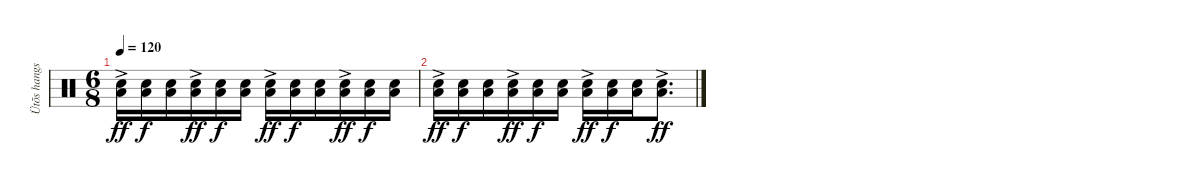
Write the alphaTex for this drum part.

\track ("Ütõs hangszer" "Ütõs hangs") {instrument percussion}
\staff {score}
\articulation defaults
\ts (6 8)
\tempo 120
\clef neutral
\ks c
("Low Floor Tom (hit)"{ac} "Snare (hit) 2"{ac}).16{dy ff} ("Low Floor Tom (hit)" "Snare (hit) 2").16{dy f} ("Low Floor Tom (hit)" "Snare (hit) 2").16 ("Low Floor Tom (hit)"{ac} "Snare (hit) 2"{ac}).16{dy ff} ("Low Floor Tom (hit)" "Snare (hit) 2").16{dy f} ("Low Floor Tom (hit)" "Snare (hit) 2").16 ("Low Floor Tom (hit)"{ac} "Snare (hit) 2"{ac}).16{dy ff} ("Low Floor Tom (hit)" "Snare (hit) 2").16{dy f} ("Low Floor Tom (hit)" "Snare (hit) 2").16 ("Low Floor Tom (hit)"{ac} "Snare (hit) 2"{ac}).16{dy ff} ("Low Floor Tom (hit)" "Snare (hit) 2").16{dy f} ("Low Floor Tom (hit)" "Snare (hit) 2").16 |
("Low Floor Tom (hit)"{ac} "Snare (hit) 2"{ac}).16{dy ff} ("Low Floor Tom (hit)" "Snare (hit) 2").16{dy f} ("Low Floor Tom (hit)" "Snare (hit) 2").16 ("Low Floor Tom (hit)"{ac} "Snare (hit) 2"{ac}).16{dy ff} ("Low Floor Tom (hit)" "Snare (hit) 2").16{dy f} ("Low Floor Tom (hit)" "Snare (hit) 2").16 ("Low Floor Tom (hit)"{ac} "Snare (hit) 2"{ac}).16{dy ff} ("Low Floor Tom (hit)" "Snare (hit) 2").16{dy f} ("Low Floor Tom (hit)" "Snare (hit) 2").16 ("Low Floor Tom (hit)"{ac} "Snare (hit) 2"{ac}).8{d dy ff}
